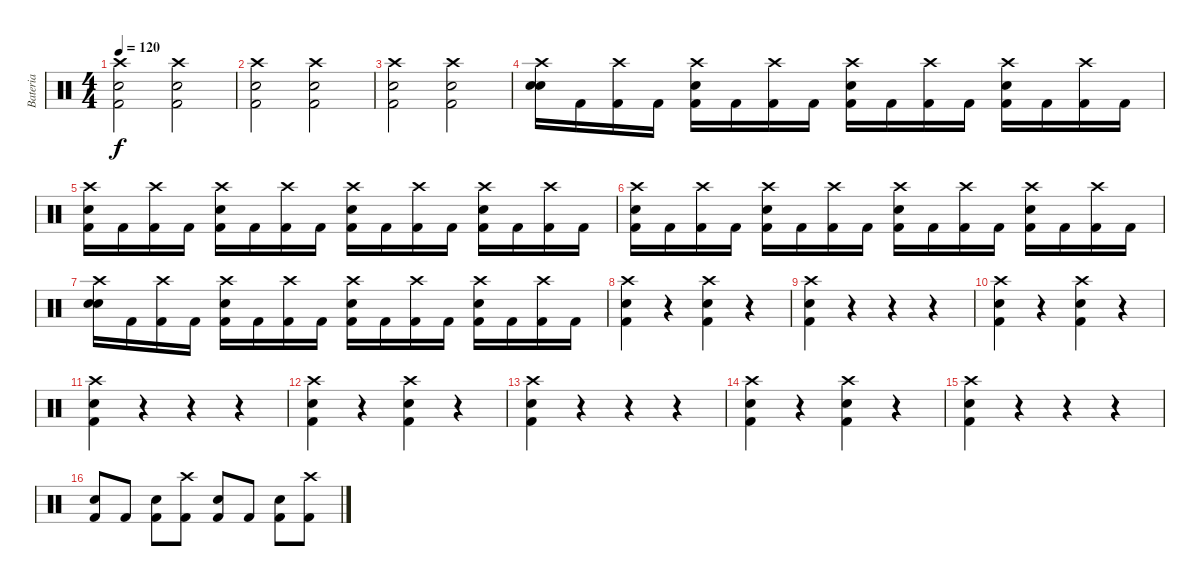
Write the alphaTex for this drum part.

\track ("Bateria" "Bateria") {instrument percussion}
\staff {score}
\articulation defaults
\ts (4 4)
\tempo 120
\clef neutral
\ks c
("Crash high (hit)" "Electric Snare (hit)" "Kick (hit) 2").2{dy f} ("Crash high (hit)" "Electric Snare (hit)" "Kick (hit) 2").2 |
("Crash high (hit)" "Electric Snare (hit)" "Kick (hit) 2").2 ("Crash high (hit)" "Electric Snare (hit)" "Kick (hit) 2").2 |
("Crash high (hit)" "Electric Snare (hit)" "Kick (hit) 2").2 ("Crash high (hit)" "Electric Snare (hit)" "Kick (hit) 2").2 |
("Crash high (hit)" "Electric Snare (hit)" "Electric Snare (hit)").16 "Kick (hit) 2".16 ("Kick (hit) 2" "Crash high (hit)").16 "Kick (hit) 2".16 ("Crash high (hit)" "Kick (hit) 2" "Electric Snare (hit)").16 "Kick (hit) 2".16 ("Kick (hit) 2" "Crash high (hit)").16 "Kick (hit) 2".16 ("Kick (hit) 2" "Crash high (hit)" "Electric Snare (hit)").16 "Kick (hit) 2".16 ("Kick (hit) 2" "Crash high (hit)").16 "Kick (hit) 2".16 ("Kick (hit) 2" "Electric Snare (hit)" "Crash high (hit)").16 "Kick (hit) 2".16 ("Crash high (hit)" "Kick (hit) 2").16 "Kick (hit) 2".16 |
("Crash high (hit)" "Snare (hit) 2" "Kick (hit) 2").16 "Kick (hit) 2".16 ("Kick (hit) 2" "Crash high (hit)").16 "Kick (hit) 2".16 ("Crash high (hit)" "Kick (hit) 2" "Snare (hit) 2").16 "Kick (hit) 2".16 ("Kick (hit) 2" "Crash high (hit)").16 "Kick (hit) 2".16 ("Kick (hit) 2" "Snare (hit) 2" "Crash high (hit)").16 "Kick (hit) 2".16 ("Kick (hit) 2" "Crash high (hit)").16 "Kick (hit) 2".16 ("Kick (hit) 2" "Snare (hit) 2" "Crash high (hit)").16 "Kick (hit) 2".16 ("Crash high (hit)" "Kick (hit) 2").16 "Kick (hit) 2".16 |
("Crash high (hit)" "Snare (hit) 2" "Kick (hit) 2").16 "Kick (hit) 2".16 ("Kick (hit) 2" "Crash high (hit)").16 "Kick (hit) 2".16 ("Crash high (hit)" "Kick (hit) 2" "Snare (hit) 2").16 "Kick (hit) 2".16 ("Kick (hit) 2" "Crash high (hit)").16 "Kick (hit) 2".16 ("Kick (hit) 2" "Snare (hit) 2" "Crash high (hit)").16 "Kick (hit) 2".16 ("Kick (hit) 2" "Crash high (hit)").16 "Kick (hit) 2".16 ("Kick (hit) 2" "Snare (hit) 2" "Crash high (hit)").16 "Kick (hit) 2".16 ("Crash high (hit)" "Kick (hit) 2").16 "Kick (hit) 2".16 |
("Crash high (hit)" "Electric Snare (hit)" "Electric Snare (hit)").16 "Kick (hit) 2".16 ("Kick (hit) 2" "Crash high (hit)").16 "Kick (hit) 2".16 ("Crash high (hit)" "Kick (hit) 2" "Electric Snare (hit)").16 "Kick (hit) 2".16 ("Kick (hit) 2" "Crash high (hit)").16 "Kick (hit) 2".16 ("Kick (hit) 2" "Crash high (hit)" "Electric Snare (hit)").16 "Kick (hit) 2".16 ("Kick (hit) 2" "Crash high (hit)").16 "Kick (hit) 2".16 ("Kick (hit) 2" "Electric Snare (hit)" "Crash high (hit)").16 "Kick (hit) 2".16 ("Crash high (hit)" "Kick (hit) 2").16 "Kick (hit) 2".16 |
("Kick (hit) 2" "Electric Snare (hit)" "Crash high (hit)").4 r.4 ("Kick (hit) 2" "Crash high (hit)" "Electric Snare (hit)").4 r.4 |
("Kick (hit) 2" "Electric Snare (hit)" "Crash high (hit)").4 r.4 r.4 r.4 |
("Kick (hit) 2" "Electric Snare (hit)" "Crash high (hit)").4 r.4 ("Kick (hit) 2" "Crash high (hit)" "Electric Snare (hit)").4 r.4 |
("Kick (hit) 2" "Electric Snare (hit)" "Crash high (hit)").4 r.4 r.4 r.4 |
("Kick (hit) 2" "Electric Snare (hit)" "Crash high (hit)").4 r.4 ("Kick (hit) 2" "Crash high (hit)" "Electric Snare (hit)").4 r.4 |
("Kick (hit) 2" "Electric Snare (hit)" "Crash high (hit)").4 r.4 r.4 r.4 |
("Kick (hit) 2" "Electric Snare (hit)" "Crash high (hit)").4 r.4 ("Kick (hit) 2" "Crash high (hit)" "Electric Snare (hit)").4 r.4 |
("Kick (hit) 2" "Electric Snare (hit)" "Crash high (hit)").4 r.4 r.4 r.4 |
("Kick (hit) 2" "Electric Snare (hit)").8 "Kick (hit) 2".8 ("Kick (hit) 2" "Electric Snare (hit)").8 ("Kick (hit) 2" "Crash high (hit)").8 ("Kick (hit) 2" "Electric Snare (hit)").8 "Kick (hit) 2".8 ("Kick (hit) 2" "Electric Snare (hit)").8 ("Kick (hit) 2" "Crash high (hit)").8
